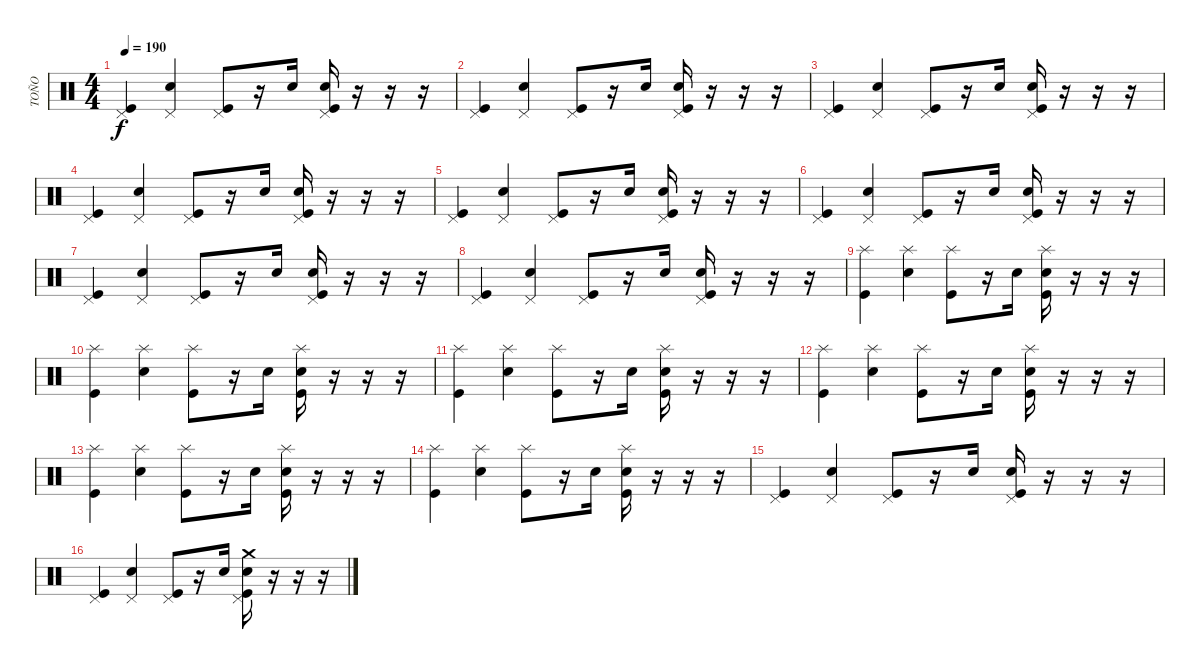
\track ("TOÑO" "TOÑO") {instrument percussion}
\staff {score}
\articulation defaults
\ts (4 4)
\tempo 190
\clef neutral
\ks c
("Pedal Hi-Hat (hit)" "Kick (hit)").4{dy f} ("Pedal Hi-Hat (hit)" "Electric Snare (hit)").4 ("Pedal Hi-Hat (hit)" "Kick (hit)").8 r.16 "Electric Snare (hit)".16 ("Pedal Hi-Hat (hit)" "Electric Snare (hit)" "Kick (hit)").16 r.16 r.16 r.16 |
("Pedal Hi-Hat (hit)" "Kick (hit)").4 ("Pedal Hi-Hat (hit)" "Electric Snare (hit)").4 ("Pedal Hi-Hat (hit)" "Kick (hit)").8 r.16 "Electric Snare (hit)".16 ("Pedal Hi-Hat (hit)" "Electric Snare (hit)" "Kick (hit)").16 r.16 r.16 r.16 |
("Pedal Hi-Hat (hit)" "Kick (hit)").4 ("Pedal Hi-Hat (hit)" "Electric Snare (hit)").4 ("Pedal Hi-Hat (hit)" "Kick (hit)").8 r.16 "Electric Snare (hit)".16 ("Pedal Hi-Hat (hit)" "Electric Snare (hit)" "Kick (hit)").16 r.16 r.16 r.16 |
("Pedal Hi-Hat (hit)" "Kick (hit)").4 ("Pedal Hi-Hat (hit)" "Electric Snare (hit)").4 ("Pedal Hi-Hat (hit)" "Kick (hit)").8 r.16 "Electric Snare (hit)".16 ("Pedal Hi-Hat (hit)" "Electric Snare (hit)" "Kick (hit)").16 r.16 r.16 r.16 |
("Pedal Hi-Hat (hit)" "Kick (hit)").4 ("Pedal Hi-Hat (hit)" "Electric Snare (hit)").4 ("Pedal Hi-Hat (hit)" "Kick (hit)").8 r.16 "Electric Snare (hit)".16 ("Pedal Hi-Hat (hit)" "Electric Snare (hit)" "Kick (hit)").16 r.16 r.16 r.16 |
("Pedal Hi-Hat (hit)" "Kick (hit)").4 ("Pedal Hi-Hat (hit)" "Electric Snare (hit)").4 ("Pedal Hi-Hat (hit)" "Kick (hit)").8 r.16 "Electric Snare (hit)".16 ("Pedal Hi-Hat (hit)" "Electric Snare (hit)" "Kick (hit)").16 r.16 r.16 r.16 |
("Pedal Hi-Hat (hit)" "Kick (hit)").4 ("Pedal Hi-Hat (hit)" "Electric Snare (hit)").4 ("Pedal Hi-Hat (hit)" "Kick (hit)").8 r.16 "Electric Snare (hit)".16 ("Pedal Hi-Hat (hit)" "Electric Snare (hit)" "Kick (hit)").16 r.16 r.16 r.16 |
("Pedal Hi-Hat (hit)" "Kick (hit)").4 ("Pedal Hi-Hat (hit)" "Electric Snare (hit)").4 ("Pedal Hi-Hat (hit)" "Kick (hit)").8 r.16 "Electric Snare (hit)".16 ("Pedal Hi-Hat (hit)" "Electric Snare (hit)" "Kick (hit)").16 r.16 r.16 r.16 |
("Splash (hit)" "Kick (hit)").4 ("Splash (hit)" "Electric Snare (hit)").4 ("Splash (hit)" "Kick (hit)").8 r.16 "Electric Snare (hit)".16 ("Splash (hit)" "Electric Snare (hit)" "Kick (hit)").16 r.16 r.16 r.16 |
("Splash (hit)" "Kick (hit)").4 ("Splash (hit)" "Electric Snare (hit)").4 ("Splash (hit)" "Kick (hit)").8 r.16 "Electric Snare (hit)".16 ("Splash (hit)" "Electric Snare (hit)" "Kick (hit)").16 r.16 r.16 r.16 |
("Splash (hit)" "Kick (hit)").4 ("Splash (hit)" "Electric Snare (hit)").4 ("Splash (hit)" "Kick (hit)").8 r.16 "Electric Snare (hit)".16 ("Splash (hit)" "Electric Snare (hit)" "Kick (hit)").16 r.16 r.16 r.16 |
("Splash (hit)" "Kick (hit)").4 ("Splash (hit)" "Electric Snare (hit)").4 ("Splash (hit)" "Kick (hit)").8 r.16 "Electric Snare (hit)".16 ("Splash (hit)" "Electric Snare (hit)" "Kick (hit)").16 r.16 r.16 r.16 |
("Splash (hit)" "Kick (hit)").4 ("Splash (hit)" "Electric Snare (hit)").4 ("Splash (hit)" "Kick (hit)").8 r.16 "Electric Snare (hit)".16 ("Splash (hit)" "Electric Snare (hit)" "Kick (hit)").16 r.16 r.16 r.16 |
("Splash (hit)" "Kick (hit)").4 ("Splash (hit)" "Electric Snare (hit)").4 ("Splash (hit)" "Kick (hit)").8 r.16 "Electric Snare (hit)".16 ("Splash (hit)" "Electric Snare (hit)" "Kick (hit)").16 r.16 r.16 r.16 |
("Pedal Hi-Hat (hit)" "Kick (hit)").4 ("Pedal Hi-Hat (hit)" "Electric Snare (hit)").4 ("Pedal Hi-Hat (hit)" "Kick (hit)").8 r.16 "Electric Snare (hit)".16 ("Pedal Hi-Hat (hit)" "Electric Snare (hit)" "Kick (hit)").16 r.16 r.16 r.16 |
("Pedal Hi-Hat (hit)" "Kick (hit)").4 ("Pedal Hi-Hat (hit)" "Electric Snare (hit)").4 ("Pedal Hi-Hat (hit)" "Kick (hit)").8 r.16 "Electric Snare (hit)".16 ("Pedal Hi-Hat (hit)" "Crash medium (hit)" "Electric Snare (hit)" "Kick (hit)").16 r.16 r.16 r.16
